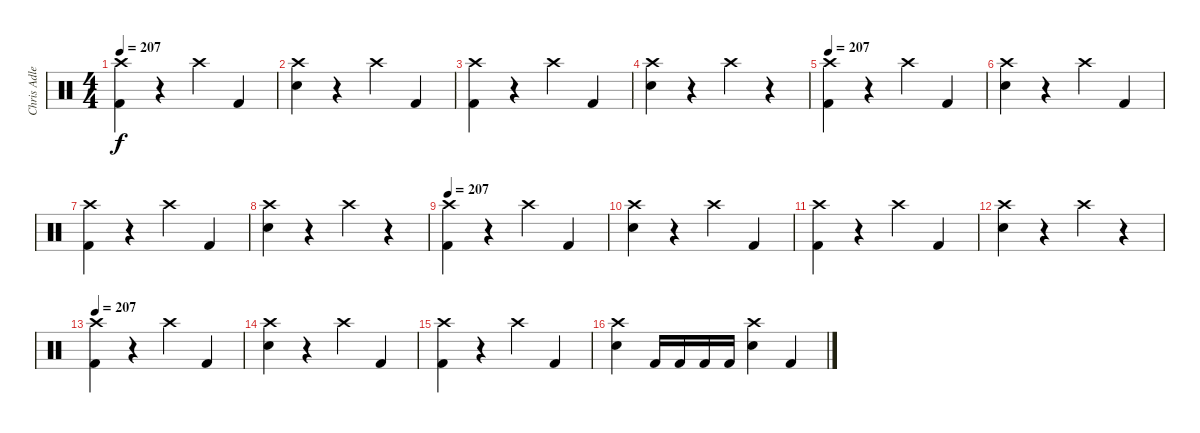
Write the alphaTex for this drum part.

\track ("Chris Adler" "Chris Adle") {instrument percussion}
\staff {score}
\articulation defaults
\ts (4 4)
\tempo 207
\clef neutral
\ks c
("Crash high (hit)" "Kick (hit) 2").4{dy f} r.4 "Crash high (hit)".4 "Kick (hit) 2".4 |
("Crash high (hit)" "Electric Snare (hit)").4 r.4 "Crash high (hit)".4 "Kick (hit) 2".4 |
("Crash high (hit)" "Kick (hit) 2").4 r.4 "Crash high (hit)".4 "Kick (hit) 2".4 |
("Crash high (hit)" "Electric Snare (hit)").4 r.4 "Crash high (hit)".4 r.4 |
\tempo 207
("Crash high (hit)" "Kick (hit) 2").4 r.4 "Crash high (hit)".4 "Kick (hit) 2".4 |
("Crash high (hit)" "Electric Snare (hit)").4 r.4 "Crash high (hit)".4 "Kick (hit) 2".4 |
("Crash high (hit)" "Kick (hit) 2").4 r.4 "Crash high (hit)".4 "Kick (hit) 2".4 |
("Crash high (hit)" "Electric Snare (hit)").4 r.4 "Crash high (hit)".4 r.4 |
\tempo 207
("Crash high (hit)" "Kick (hit) 2").4 r.4 "Crash high (hit)".4 "Kick (hit) 2".4 |
("Crash high (hit)" "Electric Snare (hit)").4 r.4 "Crash high (hit)".4 "Kick (hit) 2".4 |
("Crash high (hit)" "Kick (hit) 2").4 r.4 "Crash high (hit)".4 "Kick (hit) 2".4 |
("Crash high (hit)" "Electric Snare (hit)").4 r.4 "Crash high (hit)".4 r.4 |
\tempo 207
("Crash high (hit)" "Kick (hit) 2").4 r.4 "Crash high (hit)".4 "Kick (hit) 2".4 |
("Crash high (hit)" "Electric Snare (hit)").4 r.4 "Crash high (hit)".4 "Kick (hit) 2".4 |
("Crash high (hit)" "Kick (hit) 2").4 r.4 "Crash high (hit)".4 "Kick (hit) 2".4 |
("Crash high (hit)" "Electric Snare (hit)").4 "Kick (hit) 2".16 "Kick (hit) 2".16 "Kick (hit) 2".16 "Kick (hit) 2".16 ("Crash high (hit)" "Electric Snare (hit)").4 "Kick (hit) 2".4
